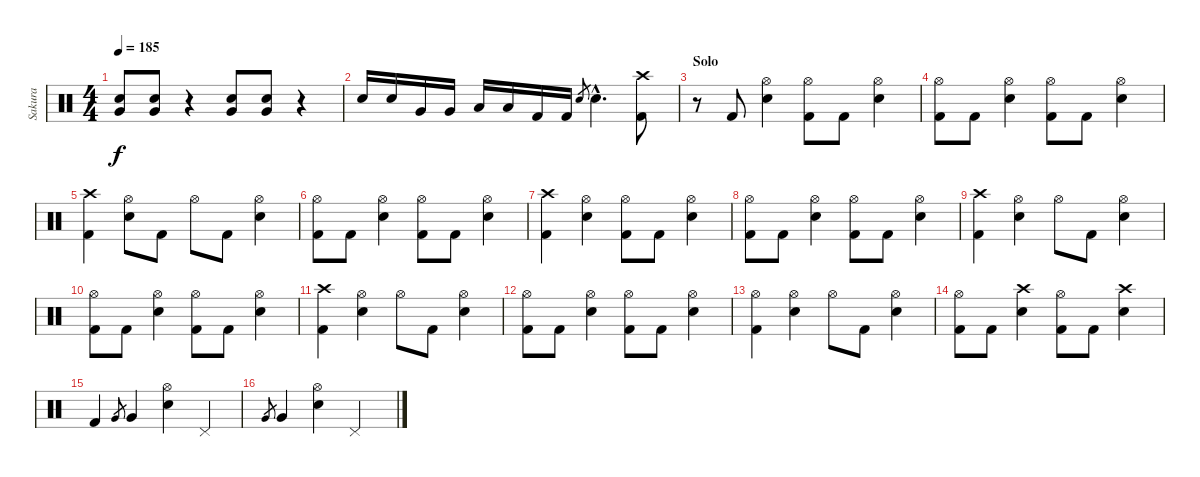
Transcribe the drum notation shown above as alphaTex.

\track ("Sakura" "Sakura") {instrument percussion}
\staff {score}
\articulation defaults
\ts (4 4)
\tempo 185
\clef neutral
\ks c
("Electric Snare (hit)" "Very Low Tom (hit)").8{dy f} ("Electric Snare (hit)" "Very Low Tom (hit)").8 r.4 ("Electric Snare (hit)" "Very Low Tom (hit)").8 ("Electric Snare (hit)" "Very Low Tom (hit)").8 r.4 |
"Electric Snare (hit)".16 "Electric Snare (hit)".16 "Very Low Tom (hit)".16 "Very Low Tom (hit)".16 "Low Floor Tom (hit)".16 "Low Floor Tom (hit)".16 "Kick (hit) 2".16 "Kick (hit) 2".16 "Electric Snare (hit)".8{gr} "Electric Snare (hit)"{hac}.4{d} ("Crash high (hit)" "Kick (hit) 2").8 |
\section ("" "Solo")
r.8 "Kick (hit) 2".8 ("Hi-Hat (open)" "Electric Snare (hit)").4 ("Hi-Hat (open)" "Kick (hit) 2").8 "Kick (hit) 2".8 ("Hi-Hat (open)" "Electric Snare (hit)").4 |
("Hi-Hat (open)" "Kick (hit) 2").8 "Kick (hit) 2".8 ("Hi-Hat (open)" "Electric Snare (hit)").4 ("Hi-Hat (open)" "Kick (hit) 2").8 "Kick (hit) 2".8 ("Hi-Hat (open)" "Electric Snare (hit)").4 |
("Crash high (hit)" "Kick (hit) 2").4 ("Hi-Hat (open)" "Electric Snare (hit)").8 "Kick (hit) 2".8 "Hi-Hat (open)".8 "Kick (hit) 2".8 ("Hi-Hat (open)" "Electric Snare (hit)").4 |
("Hi-Hat (open)" "Kick (hit) 2").8 "Kick (hit) 2".8 ("Hi-Hat (open)" "Electric Snare (hit)").4 ("Hi-Hat (open)" "Kick (hit) 2").8 "Kick (hit) 2".8 ("Hi-Hat (open)" "Electric Snare (hit)").4 |
("Crash high (hit)" "Kick (hit) 2").4 ("Hi-Hat (open)" "Electric Snare (hit)").4 ("Hi-Hat (open)" "Kick (hit) 2").8 "Kick (hit) 2".8 ("Hi-Hat (open)" "Electric Snare (hit)").4 |
("Hi-Hat (open)" "Kick (hit) 2").8 "Kick (hit) 2".8 ("Hi-Hat (open)" "Electric Snare (hit)").4 ("Hi-Hat (open)" "Kick (hit) 2").8 "Kick (hit) 2".8 ("Hi-Hat (open)" "Electric Snare (hit)").4 |
("Crash high (hit)" "Kick (hit) 2").4 ("Hi-Hat (open)" "Electric Snare (hit)").4 "Hi-Hat (open)".8 "Kick (hit) 2".8 ("Hi-Hat (open)" "Electric Snare (hit)").4 |
("Hi-Hat (open)" "Kick (hit) 2").8 "Kick (hit) 2".8 ("Hi-Hat (open)" "Electric Snare (hit)").4 ("Hi-Hat (open)" "Kick (hit) 2").8 "Kick (hit) 2".8 ("Hi-Hat (open)" "Electric Snare (hit)").4 |
("Crash high (hit)" "Kick (hit) 2").4 ("Hi-Hat (open)" "Electric Snare (hit)").4 "Hi-Hat (open)".8 "Kick (hit) 2".8 ("Hi-Hat (open)" "Electric Snare (hit)").4 |
("Hi-Hat (open)" "Kick (hit) 2").8 "Kick (hit) 2".8 ("Hi-Hat (open)" "Electric Snare (hit)").4 ("Hi-Hat (open)" "Kick (hit) 2").8 "Kick (hit) 2".8 ("Hi-Hat (open)" "Electric Snare (hit)").4 |
("Hi-Hat (open)" "Kick (hit) 2").4 ("Hi-Hat (open)" "Electric Snare (hit)").4 "Hi-Hat (open)".8 "Kick (hit) 2".8 ("Hi-Hat (open)" "Electric Snare (hit)").4 |
("Hi-Hat (open)" "Kick (hit) 2").8 "Kick (hit) 2".8 ("Crash high (hit)" "Electric Snare (hit)").4 ("Hi-Hat (open)" "Kick (hit) 2").8 "Kick (hit) 2".8 ("Crash high (hit)" "Electric Snare (hit)").4 |
"Kick (hit) 2".4 "Very Low Tom (hit)".8{gr} "Very Low Tom (hit)".4 ("Hi-Hat (open)" "Electric Snare (hit)").4 "Pedal Hi-Hat (hit)".4 |
"Very Low Tom (hit)".8{gr} "Very Low Tom (hit)".4 ("Hi-Hat (open)" "Electric Snare (hit)").4 "Pedal Hi-Hat (hit)".2
